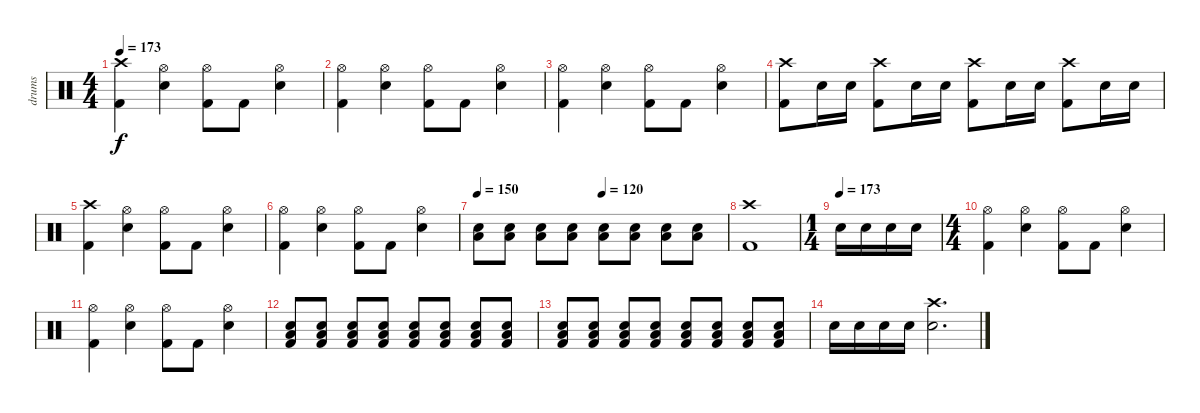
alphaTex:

\track ("drums" "drums") {instrument percussion}
\staff {score}
\articulation defaults
\ts (4 4)
\tempo 173
\clef neutral
\ks c
("Crash high (hit)" "Kick (hit) 2").4{dy f} ("Hi-Hat (open)" "Electric Snare (hit)").4 ("Hi-Hat (open)" "Kick (hit) 2").8 "Kick (hit) 2".8 ("Hi-Hat (open)" "Electric Snare (hit)").4 |
("Hi-Hat (open)" "Kick (hit) 2").4 ("Hi-Hat (open)" "Electric Snare (hit)").4 ("Hi-Hat (open)" "Kick (hit) 2").8 "Kick (hit) 2".8 ("Hi-Hat (open)" "Electric Snare (hit)").4 |
("Hi-Hat (open)" "Kick (hit) 2").4 ("Hi-Hat (open)" "Electric Snare (hit)").4 ("Hi-Hat (open)" "Kick (hit) 2").8 "Kick (hit) 2".8 ("Hi-Hat (open)" "Electric Snare (hit)").4 |
("Crash high (hit)" "Kick (hit) 2").8 "Electric Snare (hit)".16 "Electric Snare (hit)".16 ("Crash high (hit)" "Kick (hit) 2").8 "Electric Snare (hit)".16 "Electric Snare (hit)".16 ("Crash high (hit)" "Kick (hit) 2").8 "Electric Snare (hit)".16 "Electric Snare (hit)".16 ("Crash high (hit)" "Kick (hit) 2").8 "Electric Snare (hit)".16 "Electric Snare (hit)".16 |
("Crash high (hit)" "Kick (hit) 2").4 ("Hi-Hat (open)" "Electric Snare (hit)").4 ("Hi-Hat (open)" "Kick (hit) 2").8 "Kick (hit) 2".8 ("Hi-Hat (open)" "Electric Snare (hit)").4 |
("Hi-Hat (open)" "Kick (hit) 2").4 ("Hi-Hat (open)" "Electric Snare (hit)").4 ("Hi-Hat (open)" "Kick (hit) 2").8 "Kick (hit) 2".8 ("Hi-Hat (open)" "Electric Snare (hit)").4 |
\tempo 150
\tempo (120 0.5)
("Electric Snare (hit)" "Low Tom (hit)").8 ("Electric Snare (hit)" "Low Tom (hit)").8 ("Electric Snare (hit)" "Low Tom (hit)").8 ("Electric Snare (hit)" "Low Tom (hit)").8 ("Electric Snare (hit)" "Low Tom (hit)").8 ("Electric Snare (hit)" "Low Tom (hit)").8 ("Electric Snare (hit)" "Low Tom (hit)").8 ("Electric Snare (hit)" "Low Tom (hit)").8 |
("Crash high (hit)" "Kick (hit) 2").1 |
\ts (1 4)
\tempo (173)
"Electric Snare (hit)".16 "Electric Snare (hit)".16 "Electric Snare (hit)".16 "Electric Snare (hit)".16 |
\ts (4 4)
("Hi-Hat (open)" "Kick (hit) 2").4 ("Hi-Hat (open)" "Electric Snare (hit)").4 ("Hi-Hat (open)" "Kick (hit) 2").8 "Kick (hit) 2".8 ("Hi-Hat (open)" "Electric Snare (hit)").4 |
("Hi-Hat (open)" "Kick (hit) 2").4 ("Hi-Hat (open)" "Electric Snare (hit)").4 ("Hi-Hat (open)" "Kick (hit) 2").8 "Kick (hit) 2".8 ("Hi-Hat (open)" "Electric Snare (hit)").4 |
("Low Tom (hit)" "Electric Snare (hit)" "Kick (hit) 2").8 ("Low Tom (hit)" "Electric Snare (hit)" "Kick (hit) 2").8 ("Low Tom (hit)" "Electric Snare (hit)" "Kick (hit) 2").8 ("Low Tom (hit)" "Electric Snare (hit)" "Kick (hit) 2").8 ("Low Tom (hit)" "Electric Snare (hit)" "Kick (hit) 2").8 ("Low Tom (hit)" "Electric Snare (hit)" "Kick (hit) 2").8 ("Low Tom (hit)" "Electric Snare (hit)" "Kick (hit) 2").8 ("Low Tom (hit)" "Electric Snare (hit)" "Kick (hit) 2").8 |
("Low Tom (hit)" "Electric Snare (hit)" "Kick (hit) 2").8 ("Low Tom (hit)" "Electric Snare (hit)" "Kick (hit) 2").8 ("Low Tom (hit)" "Electric Snare (hit)" "Kick (hit) 2").8 ("Low Tom (hit)" "Electric Snare (hit)" "Kick (hit) 2").8 ("Low Tom (hit)" "Electric Snare (hit)" "Kick (hit) 2").8 ("Low Tom (hit)" "Electric Snare (hit)" "Kick (hit) 2").8 ("Low Tom (hit)" "Electric Snare (hit)" "Kick (hit) 2").8 ("Low Tom (hit)" "Electric Snare (hit)" "Kick (hit) 2").8 |
"Electric Snare (hit)".16 "Electric Snare (hit)".16 "Electric Snare (hit)".16 "Electric Snare (hit)".16 ("Crash high (hit)" "Electric Snare (hit)").2{d}
